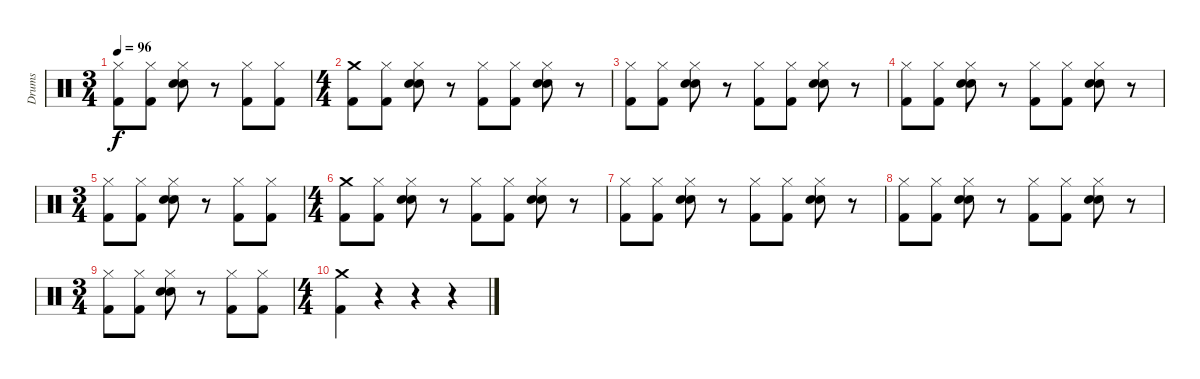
\track ("Drums" "Drums") {instrument percussion}
\staff {score}
\articulation defaults
\ts (3 4)
\tempo 96
\clef neutral
\ks c
("Hi-Hat (closed)" "Kick (hit) 2").8{dy f} ("Hi-Hat (closed)" "Kick (hit) 2").8 ("Hi-Hat (closed)" "Hand Clap (hit)" "Snare (hit) 2").8 r.8 ("Hi-Hat (closed)" "Kick (hit) 2").8 ("Hi-Hat (closed)" "Kick (hit) 2").8 |
\ts (4 4)
("Crash medium (hit)" "Kick (hit) 2").8 ("Hi-Hat (closed)" "Kick (hit) 2").8 ("Hi-Hat (closed)" "Hand Clap (hit)" "Snare (hit) 2").8 r.8 ("Hi-Hat (closed)" "Kick (hit) 2").8 ("Hi-Hat (closed)" "Kick (hit) 2").8 ("Hi-Hat (closed)" "Hand Clap (hit)" "Snare (hit) 2").8 r.8 |
("Hi-Hat (closed)" "Kick (hit) 2").8 ("Hi-Hat (closed)" "Kick (hit) 2").8 ("Hi-Hat (closed)" "Hand Clap (hit)" "Snare (hit) 2").8 r.8 ("Hi-Hat (closed)" "Kick (hit) 2").8 ("Hi-Hat (closed)" "Kick (hit) 2").8 ("Hi-Hat (closed)" "Hand Clap (hit)" "Snare (hit) 2").8 r.8 |
("Hi-Hat (closed)" "Kick (hit) 2").8 ("Hi-Hat (closed)" "Kick (hit) 2").8 ("Hi-Hat (closed)" "Hand Clap (hit)" "Snare (hit) 2").8 r.8 ("Hi-Hat (closed)" "Kick (hit) 2").8 ("Hi-Hat (closed)" "Kick (hit) 2").8 ("Hi-Hat (closed)" "Hand Clap (hit)" "Snare (hit) 2").8 r.8 |
\ts (3 4)
("Hi-Hat (closed)" "Kick (hit) 2").8 ("Hi-Hat (closed)" "Kick (hit) 2").8 ("Hi-Hat (closed)" "Hand Clap (hit)" "Snare (hit) 2").8 r.8 ("Hi-Hat (closed)" "Kick (hit) 2").8 ("Hi-Hat (closed)" "Kick (hit) 2").8 |
\ts (4 4)
("Crash medium (hit)" "Kick (hit) 2").8 ("Hi-Hat (closed)" "Kick (hit) 2").8 ("Hi-Hat (closed)" "Hand Clap (hit)" "Snare (hit) 2").8 r.8 ("Hi-Hat (closed)" "Kick (hit) 2").8 ("Hi-Hat (closed)" "Kick (hit) 2").8 ("Hi-Hat (closed)" "Hand Clap (hit)" "Snare (hit) 2").8 r.8 |
("Hi-Hat (closed)" "Kick (hit) 2").8 ("Hi-Hat (closed)" "Kick (hit) 2").8 ("Hi-Hat (closed)" "Hand Clap (hit)" "Snare (hit) 2").8 r.8 ("Hi-Hat (closed)" "Kick (hit) 2").8 ("Hi-Hat (closed)" "Kick (hit) 2").8 ("Hi-Hat (closed)" "Hand Clap (hit)" "Snare (hit) 2").8 r.8 |
("Hi-Hat (closed)" "Kick (hit) 2").8 ("Hi-Hat (closed)" "Kick (hit) 2").8 ("Hi-Hat (closed)" "Hand Clap (hit)" "Snare (hit) 2").8 r.8 ("Hi-Hat (closed)" "Kick (hit) 2").8 ("Hi-Hat (closed)" "Kick (hit) 2").8 ("Hi-Hat (closed)" "Hand Clap (hit)" "Snare (hit) 2").8 r.8 |
\ts (3 4)
("Hi-Hat (closed)" "Kick (hit) 2").8 ("Hi-Hat (closed)" "Kick (hit) 2").8 ("Hi-Hat (closed)" "Hand Clap (hit)" "Snare (hit) 2").8 r.8 ("Hi-Hat (closed)" "Kick (hit) 2").8 ("Hi-Hat (closed)" "Kick (hit) 2").8 |
\ts (4 4)
("Crash medium (hit)" "Kick (hit) 2").4 r.4 r.4 r.4
